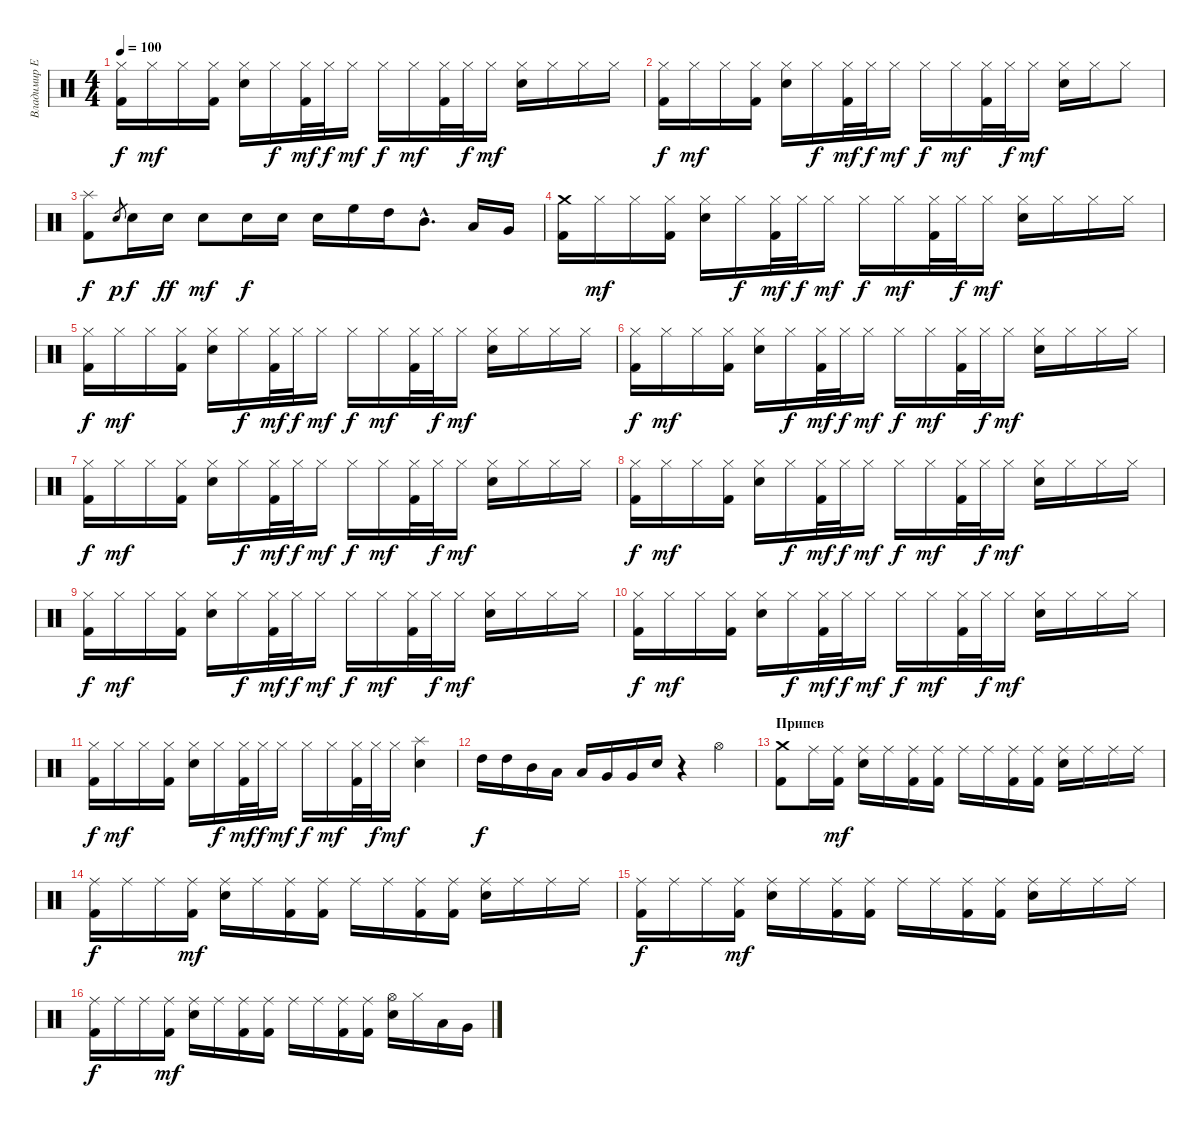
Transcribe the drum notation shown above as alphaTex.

\track ("Владимир Ермаков" "Владимир Е") {instrument percussion}
\staff {score}
\articulation defaults
\ts (4 4)
\tempo 100
\clef neutral
\ks c
("Kick (hit) 2" "Hi-Hat (closed)").16{dy f} "Hi-Hat (closed)".16{dy mf} "Hi-Hat (closed)".16 ("Kick (hit) 2" "Hi-Hat (closed)").16 ("Electric Snare (hit)" "Hi-Hat (closed)").16 "Hi-Hat (closed)".16{dy f} ("Kick (hit) 2" "Hi-Hat (closed)").32{dy mf} "Hi-Hat (closed)".32{dy f} "Hi-Hat (closed)".16{dy mf} "Hi-Hat (closed)".16{dy f} "Hi-Hat (closed)".16{dy mf} ("Kick (hit) 2" "Hi-Hat (closed)").32 "Hi-Hat (closed)".32{dy f} "Hi-Hat (closed)".16{dy mf} ("Electric Snare (hit)" "Hi-Hat (closed)").16 "Hi-Hat (closed)".16 "Hi-Hat (closed)".16 "Hi-Hat (closed)".16 |
("Kick (hit) 2" "Hi-Hat (closed)").16{dy f} "Hi-Hat (closed)".16{dy mf} "Hi-Hat (closed)".16 ("Kick (hit) 2" "Hi-Hat (closed)").16 ("Electric Snare (hit)" "Hi-Hat (closed)").16 "Hi-Hat (closed)".16{dy f} ("Kick (hit) 2" "Hi-Hat (closed)").32{dy mf} "Hi-Hat (closed)".32{dy f} "Hi-Hat (closed)".16{dy mf} "Hi-Hat (closed)".16{dy f} "Hi-Hat (closed)".16{dy mf} ("Kick (hit) 2" "Hi-Hat (closed)").32 "Hi-Hat (closed)".32{dy f} "Hi-Hat (closed)".16{dy mf} ("Electric Snare (hit)" "Hi-Hat (closed)").16 "Hi-Hat (closed)".16 "Hi-Hat (closed)".8 |
("Splash (hit)" "Kick (hit) 2").8{dy f} "Electric Snare (hit)".8{gr dy p} "Electric Snare (hit)".16{dy f} "Electric Snare (hit)".16{dy ff} "Electric Snare (hit)".8{dy mf} "Electric Snare (hit)".16{dy f} "Electric Snare (hit)".16 "Electric Snare (hit)".16 "High Floor Tom (hit)".16 "High Tom (hit)".16 "Mid Tom (hit)"{hac}.8{d} "Low Tom (hit)".16 "Very Low Tom (hit)".16 |
("Kick (hit) 2" "Crash medium (hit)").16 "Hi-Hat (closed)".16{dy mf} "Hi-Hat (closed)".16 ("Kick (hit) 2" "Hi-Hat (closed)").16 ("Electric Snare (hit)" "Hi-Hat (closed)").16 "Hi-Hat (closed)".16{dy f} ("Kick (hit) 2" "Hi-Hat (closed)").32{dy mf} "Hi-Hat (closed)".32{dy f} "Hi-Hat (closed)".16{dy mf} "Hi-Hat (closed)".16{dy f} "Hi-Hat (closed)".16{dy mf} ("Kick (hit) 2" "Hi-Hat (closed)").32 "Hi-Hat (closed)".32{dy f} "Hi-Hat (closed)".16{dy mf} ("Electric Snare (hit)" "Hi-Hat (closed)").16 "Hi-Hat (closed)".16 "Hi-Hat (closed)".16 "Hi-Hat (closed)".16 |
("Kick (hit) 2" "Hi-Hat (closed)").16{dy f} "Hi-Hat (closed)".16{dy mf} "Hi-Hat (closed)".16 ("Kick (hit) 2" "Hi-Hat (closed)").16 ("Electric Snare (hit)" "Hi-Hat (closed)").16 "Hi-Hat (closed)".16{dy f} ("Kick (hit) 2" "Hi-Hat (closed)").32{dy mf} "Hi-Hat (closed)".32{dy f} "Hi-Hat (closed)".16{dy mf} "Hi-Hat (closed)".16{dy f} "Hi-Hat (closed)".16{dy mf} ("Kick (hit) 2" "Hi-Hat (closed)").32 "Hi-Hat (closed)".32{dy f} "Hi-Hat (closed)".16{dy mf} ("Electric Snare (hit)" "Hi-Hat (closed)").16 "Hi-Hat (closed)".16 "Hi-Hat (closed)".16 "Hi-Hat (closed)".16 |
("Kick (hit) 2" "Hi-Hat (closed)").16{dy f} "Hi-Hat (closed)".16{dy mf} "Hi-Hat (closed)".16 ("Kick (hit) 2" "Hi-Hat (closed)").16 ("Electric Snare (hit)" "Hi-Hat (closed)").16 "Hi-Hat (closed)".16{dy f} ("Kick (hit) 2" "Hi-Hat (closed)").32{dy mf} "Hi-Hat (closed)".32{dy f} "Hi-Hat (closed)".16{dy mf} "Hi-Hat (closed)".16{dy f} "Hi-Hat (closed)".16{dy mf} ("Kick (hit) 2" "Hi-Hat (closed)").32 "Hi-Hat (closed)".32{dy f} "Hi-Hat (closed)".16{dy mf} ("Electric Snare (hit)" "Hi-Hat (closed)").16 "Hi-Hat (closed)".16 "Hi-Hat (closed)".16 "Hi-Hat (closed)".16 |
("Kick (hit) 2" "Hi-Hat (closed)").16{dy f} "Hi-Hat (closed)".16{dy mf} "Hi-Hat (closed)".16 ("Kick (hit) 2" "Hi-Hat (closed)").16 ("Electric Snare (hit)" "Hi-Hat (closed)").16 "Hi-Hat (closed)".16{dy f} ("Kick (hit) 2" "Hi-Hat (closed)").32{dy mf} "Hi-Hat (closed)".32{dy f} "Hi-Hat (closed)".16{dy mf} "Hi-Hat (closed)".16{dy f} "Hi-Hat (closed)".16{dy mf} ("Kick (hit) 2" "Hi-Hat (closed)").32 "Hi-Hat (closed)".32{dy f} "Hi-Hat (closed)".16{dy mf} ("Electric Snare (hit)" "Hi-Hat (closed)").16 "Hi-Hat (closed)".16 "Hi-Hat (closed)".16 "Hi-Hat (closed)".16 |
("Kick (hit) 2" "Hi-Hat (closed)").16{dy f} "Hi-Hat (closed)".16{dy mf} "Hi-Hat (closed)".16 ("Kick (hit) 2" "Hi-Hat (closed)").16 ("Electric Snare (hit)" "Hi-Hat (closed)").16 "Hi-Hat (closed)".16{dy f} ("Kick (hit) 2" "Hi-Hat (closed)").32{dy mf} "Hi-Hat (closed)".32{dy f} "Hi-Hat (closed)".16{dy mf} "Hi-Hat (closed)".16{dy f} "Hi-Hat (closed)".16{dy mf} ("Kick (hit) 2" "Hi-Hat (closed)").32 "Hi-Hat (closed)".32{dy f} "Hi-Hat (closed)".16{dy mf} ("Electric Snare (hit)" "Hi-Hat (closed)").16 "Hi-Hat (closed)".16 "Hi-Hat (closed)".16 "Hi-Hat (closed)".16 |
("Kick (hit) 2" "Hi-Hat (closed)").16{dy f} "Hi-Hat (closed)".16{dy mf} "Hi-Hat (closed)".16 ("Kick (hit) 2" "Hi-Hat (closed)").16 ("Electric Snare (hit)" "Hi-Hat (closed)").16 "Hi-Hat (closed)".16{dy f} ("Kick (hit) 2" "Hi-Hat (closed)").32{dy mf} "Hi-Hat (closed)".32{dy f} "Hi-Hat (closed)".16{dy mf} "Hi-Hat (closed)".16{dy f} "Hi-Hat (closed)".16{dy mf} ("Kick (hit) 2" "Hi-Hat (closed)").32 "Hi-Hat (closed)".32{dy f} "Hi-Hat (closed)".16{dy mf} ("Electric Snare (hit)" "Hi-Hat (closed)").16 "Hi-Hat (closed)".16 "Hi-Hat (closed)".16 "Hi-Hat (closed)".16 |
("Kick (hit) 2" "Hi-Hat (closed)").16{dy f} "Hi-Hat (closed)".16{dy mf} "Hi-Hat (closed)".16 ("Kick (hit) 2" "Hi-Hat (closed)").16 ("Electric Snare (hit)" "Hi-Hat (closed)").16 "Hi-Hat (closed)".16{dy f} ("Kick (hit) 2" "Hi-Hat (closed)").32{dy mf} "Hi-Hat (closed)".32{dy f} "Hi-Hat (closed)".16{dy mf} "Hi-Hat (closed)".16{dy f} "Hi-Hat (closed)".16{dy mf} ("Kick (hit) 2" "Hi-Hat (closed)").32 "Hi-Hat (closed)".32{dy f} "Hi-Hat (closed)".16{dy mf} ("Electric Snare (hit)" "Hi-Hat (closed)").16 "Hi-Hat (closed)".16 "Hi-Hat (closed)".16 "Hi-Hat (closed)".16 |
("Kick (hit) 2" "Hi-Hat (closed)").16{dy f} "Hi-Hat (closed)".16{dy mf} "Hi-Hat (closed)".16 ("Kick (hit) 2" "Hi-Hat (closed)").16 ("Electric Snare (hit)" "Hi-Hat (closed)").16 "Hi-Hat (closed)".16{dy f} ("Kick (hit) 2" "Hi-Hat (closed)").32{dy mf} "Hi-Hat (closed)".32{dy f} "Hi-Hat (closed)".16{dy mf} "Hi-Hat (closed)".16{dy f} "Hi-Hat (closed)".16{dy mf} ("Kick (hit) 2" "Hi-Hat (closed)").32 "Hi-Hat (closed)".32{dy f} "Hi-Hat (closed)".16{dy mf} ("Electric Snare (hit)" "Splash (hit)").4 |
"High Tom (hit)".16{dy f} "High Tom (hit)".16 "Mid Tom (hit)".16 "Low Tom (hit)".16 "Low Tom (hit)".16 "Very Low Tom (hit)".16 "Very Low Tom (hit)".16 "Electric Snare (hit)".16 r.4 "Hi-Hat (open)".4 |
\section ("" "Припев")
("Crash medium (hit)" "Kick (hit) 2").8 "Ride (middle)".16 ("Ride (middle)" "Kick (hit) 2").16{dy mf} ("Ride (middle)" "Electric Snare (hit)").16 "Ride (middle)".16 ("Ride (middle)" "Kick (hit) 2").16 ("Ride (middle)" "Kick (hit) 2").16 "Ride (middle)".16 "Ride (middle)".16 ("Ride (middle)" "Kick (hit) 2").16 ("Ride (middle)" "Kick (hit) 2").16 ("Ride (middle)" "Electric Snare (hit)").16 "Ride (middle)".16 "Ride (middle)".16 "Ride (middle)".16 |
("Ride (middle)" "Kick (hit) 2").16{dy f} "Ride (middle)".16 "Ride (middle)".16 ("Ride (middle)" "Kick (hit) 2").16{dy mf} ("Ride (middle)" "Electric Snare (hit)").16 "Ride (middle)".16 ("Ride (middle)" "Kick (hit) 2").16 ("Ride (middle)" "Kick (hit) 2").16 "Ride (middle)".16 "Ride (middle)".16 ("Ride (middle)" "Kick (hit) 2").16 ("Ride (middle)" "Kick (hit) 2").16 ("Ride (middle)" "Electric Snare (hit)").16 "Ride (middle)".16 "Ride (middle)".16 "Ride (middle)".16 |
("Ride (middle)" "Kick (hit) 2").16{dy f} "Ride (middle)".16 "Ride (middle)".16 ("Ride (middle)" "Kick (hit) 2").16{dy mf} ("Ride (middle)" "Electric Snare (hit)").16 "Ride (middle)".16 ("Ride (middle)" "Kick (hit) 2").16 ("Ride (middle)" "Kick (hit) 2").16 "Ride (middle)".16 "Ride (middle)".16 ("Ride (middle)" "Kick (hit) 2").16 ("Ride (middle)" "Kick (hit) 2").16 ("Ride (middle)" "Electric Snare (hit)").16 "Ride (middle)".16 "Ride (middle)".16 "Ride (middle)".16 |
("Ride (middle)" "Kick (hit) 2").16{dy f} "Ride (middle)".16 "Ride (middle)".16 ("Ride (middle)" "Kick (hit) 2").16{dy mf} ("Ride (middle)" "Electric Snare (hit)").16 "Ride (middle)".16 ("Ride (middle)" "Kick (hit) 2").16 ("Ride (middle)" "Kick (hit) 2").16 "Ride (middle)".16 "Ride (middle)".16 ("Ride (middle)" "Kick (hit) 2").16 ("Ride (middle)" "Kick (hit) 2").16 ("Hi-Hat (open)" "Electric Snare (hit)").16 "Hi-Hat (closed)".16 "Low Tom (hit)".16 "Very Low Tom (hit)".16
